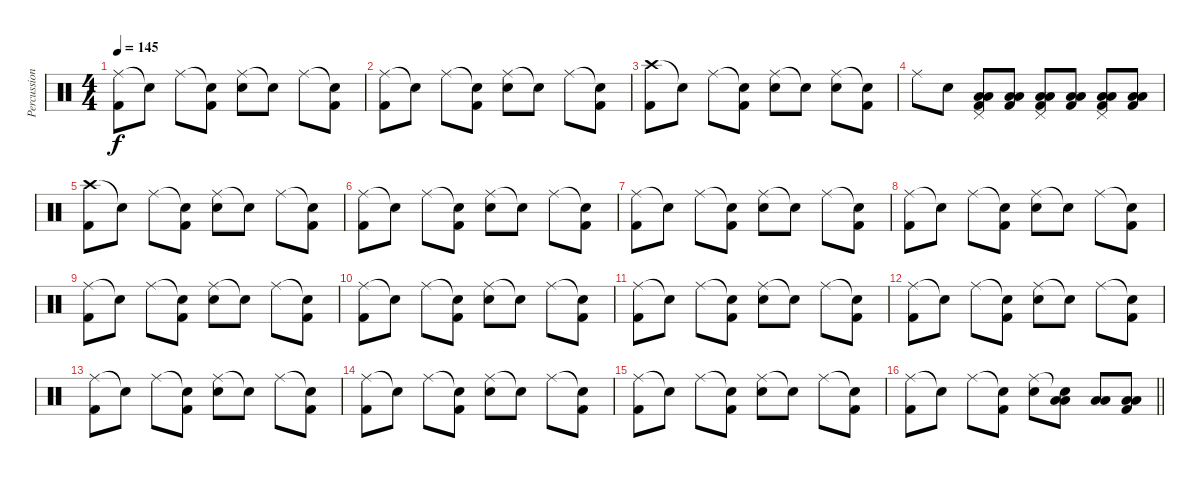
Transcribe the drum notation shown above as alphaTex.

\track ("Percussion" "Percussion") {instrument percussion}
\staff {score}
\articulation defaults
\ts (4 4)
\tempo 145
\clef neutral
\ks c
("Ride (middle)" "Kick (hit) 2").8{dy f} "Snare (hit)"{t}.8 "Ride (middle)".8 ("Snare (hit)"{t} "Kick (hit) 2").8 ("Ride (middle)" "Electric Snare (hit)").8 "Snare (hit)"{t}.8 "Ride (middle)".8 ("Snare (hit)"{t} "Kick (hit) 2").8 |
("Ride (middle)" "Kick (hit) 2").8 "Snare (hit)"{t}.8 "Ride (middle)".8 ("Snare (hit)"{t} "Kick (hit) 2").8 ("Ride (middle)" "Electric Snare (hit)").8 "Snare (hit)"{t}.8 "Ride (middle)".8 ("Snare (hit)"{t} "Kick (hit) 2").8 |
("Crash high (hit)" "Kick (hit) 2").8 "Snare (hit)"{t}.8 "Ride (middle)".8 ("Snare (hit)"{t} "Kick (hit) 2").8 ("Ride (middle)" "Electric Snare (hit)").8 "Snare (hit)"{t}.8 ("Ride (middle)" "Electric Snare (hit)").8 ("Snare (hit)"{t} "Kick (hit) 2").8 |
"Ride (middle)".8 "Electric Snare (hit)".8 ("Pedal Hi-Hat (hit)" "Low Tom (hit)" "Low Floor Tom (hit)" "Kick (hit) 2").8 ("Low Tom (hit)" "Low Floor Tom (hit)" "Kick (hit) 2").8 ("Pedal Hi-Hat (hit)" "Low Tom (hit)" "Low Floor Tom (hit)" "Kick (hit) 2").8 ("Low Tom (hit)" "Low Floor Tom (hit)" "Kick (hit) 2").8 ("Pedal Hi-Hat (hit)" "Low Tom (hit)" "Low Floor Tom (hit)" "Kick (hit) 2").8 ("Low Tom (hit)" "Low Floor Tom (hit)" "Kick (hit) 2").8 |
("Crash high (hit)" "Kick (hit) 2").8 "Snare (hit)"{t}.8 "Ride (middle)".8 ("Snare (hit)"{t} "Kick (hit) 2").8 ("Ride (middle)" "Electric Snare (hit)").8 "Snare (hit)"{t}.8 "Ride (middle)".8 ("Snare (hit)"{t} "Kick (hit) 2").8 |
("Ride (middle)" "Kick (hit) 2").8 "Snare (hit)"{t}.8 "Ride (middle)".8 ("Snare (hit)"{t} "Kick (hit) 2").8 ("Ride (middle)" "Electric Snare (hit)").8 "Snare (hit)"{t}.8 "Ride (middle)".8 ("Snare (hit)"{t} "Kick (hit) 2").8 |
("Ride (middle)" "Kick (hit) 2").8 "Snare (hit)"{t}.8 "Ride (middle)".8 ("Snare (hit)"{t} "Kick (hit) 2").8 ("Ride (middle)" "Electric Snare (hit)").8 "Snare (hit)"{t}.8 "Ride (middle)".8 ("Snare (hit)"{t} "Kick (hit) 2").8 |
("Ride (middle)" "Kick (hit) 2").8 "Snare (hit)"{t}.8 "Ride (middle)".8 ("Snare (hit)"{t} "Kick (hit) 2").8 ("Ride (middle)" "Electric Snare (hit)").8 "Snare (hit)"{t}.8 "Ride (middle)".8 ("Snare (hit)"{t} "Kick (hit) 2").8 |
("Ride (middle)" "Kick (hit) 2").8 "Snare (hit)"{t}.8 "Ride (middle)".8 ("Snare (hit)"{t} "Kick (hit) 2").8 ("Ride (middle)" "Electric Snare (hit)").8 "Snare (hit)"{t}.8 "Ride (middle)".8 ("Snare (hit)"{t} "Kick (hit) 2").8 |
("Ride (middle)" "Kick (hit) 2").8 "Snare (hit)"{t}.8 "Ride (middle)".8 ("Snare (hit)"{t} "Kick (hit) 2").8 ("Ride (middle)" "Electric Snare (hit)").8 "Snare (hit)"{t}.8 "Ride (middle)".8 ("Snare (hit)"{t} "Kick (hit) 2").8 |
("Ride (middle)" "Kick (hit) 2").8 "Snare (hit)"{t}.8 "Ride (middle)".8 ("Snare (hit)"{t} "Kick (hit) 2").8 ("Ride (middle)" "Electric Snare (hit)").8 "Snare (hit)"{t}.8 "Ride (middle)".8 ("Snare (hit)"{t} "Kick (hit) 2").8 |
("Ride (middle)" "Kick (hit) 2").8 "Snare (hit)"{t}.8 "Ride (middle)".8 ("Snare (hit)"{t} "Kick (hit) 2").8 ("Ride (middle)" "Electric Snare (hit)").8 "Snare (hit)"{t}.8 "Ride (middle)".8 ("Snare (hit)"{t} "Kick (hit) 2").8 |
("Ride (middle)" "Kick (hit) 2").8 "Snare (hit)"{t}.8 "Ride (middle)".8 ("Snare (hit)"{t} "Kick (hit) 2").8 ("Ride (middle)" "Electric Snare (hit)").8 "Snare (hit)"{t}.8 "Ride (middle)".8 ("Snare (hit)"{t} "Kick (hit) 2").8 |
("Ride (middle)" "Kick (hit) 2").8 "Snare (hit)"{t}.8 "Ride (middle)".8 ("Snare (hit)"{t} "Kick (hit) 2").8 ("Ride (middle)" "Electric Snare (hit)").8 "Snare (hit)"{t}.8 "Ride (middle)".8 ("Snare (hit)"{t} "Kick (hit) 2").8 |
("Ride (middle)" "Kick (hit) 2").8 "Snare (hit)"{t}.8 "Ride (middle)".8 ("Snare (hit)"{t} "Kick (hit) 2").8 ("Ride (middle)" "Electric Snare (hit)").8 "Snare (hit)"{t}.8 "Ride (middle)".8 ("Snare (hit)"{t} "Kick (hit) 2").8 |
\barLineRight lightlight
("Ride (middle)" "Kick (hit) 2").8 "Snare (hit)"{t}.8 "Ride (middle)".8 ("Snare (hit)"{t} "Kick (hit) 2").8 ("Ride (middle)" "Electric Snare (hit)").8 ("Snare (hit)"{t} "Low Tom (hit)" "Low Floor Tom (hit)").8 ("Low Tom (hit)" "Low Floor Tom (hit)").8 ("Low Tom (hit)" "Low Floor Tom (hit)" "Kick (hit) 2").8
